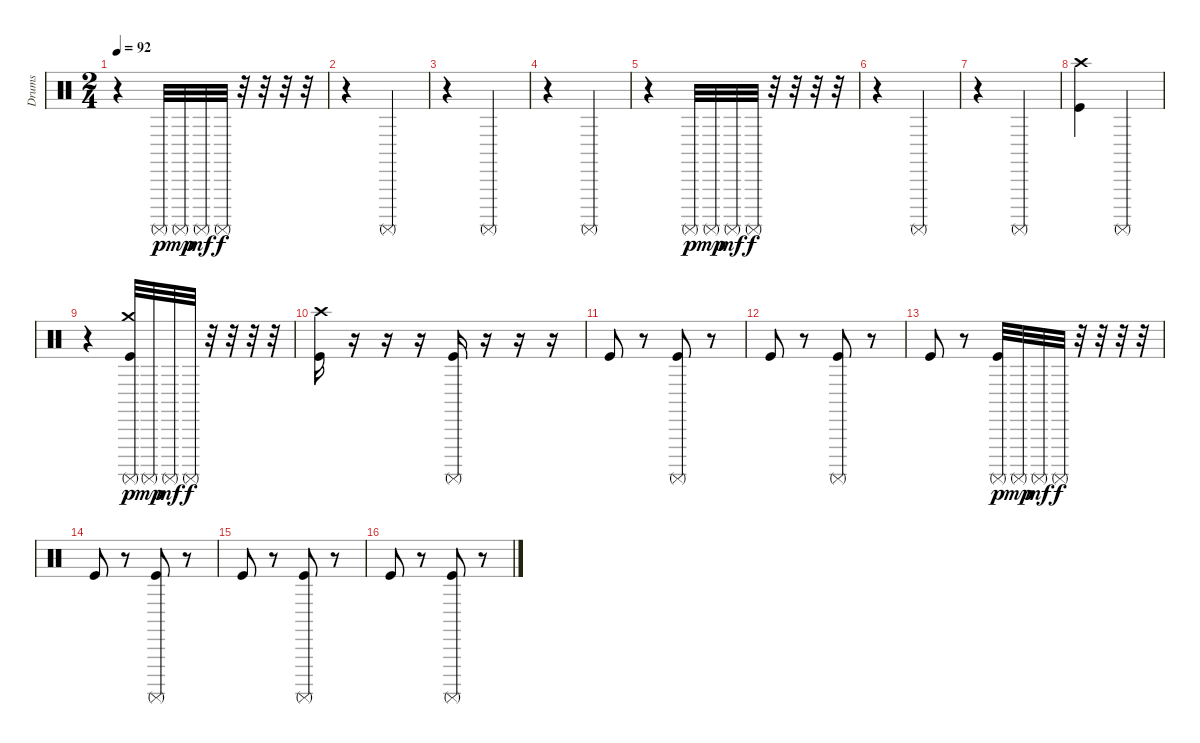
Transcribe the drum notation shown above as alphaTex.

\track ("Drums" "Drums") {instrument percussion}
\staff {score}
\articulation defaults
\ts (2 4)
\tempo 92
\clef neutral
\ks c
r.4{dy f} "Surdo (mute)".32{dy p} "Surdo (mute)".32{dy mp} "Surdo (mute)".32{dy mf} "Surdo (mute)".32{dy f} r.32 r.32 r.32 r.32 |
r.4 "Surdo (mute)".4 |
r.4 "Surdo (mute)".4 |
r.4 "Surdo (mute)".4 |
r.4 "Surdo (mute)".32{dy p} "Surdo (mute)".32{dy mp} "Surdo (mute)".32{dy mf} "Surdo (mute)".32{dy f} r.32 r.32 r.32 r.32 |
r.4 "Surdo (mute)".4 |
r.4 "Surdo (mute)".4 |
("Crash high (hit)" "Kick (hit)").4 "Surdo (mute)".4 |
r.4 ("Crash medium (hit)" "Kick (hit)" "Surdo (mute)").32{dy p} "Surdo (mute)".32{dy mp} "Surdo (mute)".32{dy mf} "Surdo (mute)".32{dy f} r.32 r.32 r.32 r.32 |
("Crash high (hit)" "Kick (hit)").16 r.16 r.16 r.16 ("Surdo (mute)" "Kick (hit)").16 r.16 r.16 r.16 |
"Kick (hit)".8 r.8 ("Surdo (mute)" "Kick (hit)").8 r.8 |
"Kick (hit)".8 r.8 ("Surdo (mute)" "Kick (hit)").8 r.8 |
"Kick (hit)".8 r.8 ("Surdo (mute)" "Kick (hit)").32{dy p} "Surdo (mute)".32{dy mp} "Surdo (mute)".32{dy mf} "Surdo (mute)".32{dy f} r.32 r.32 r.32 r.32 |
"Kick (hit)".8 r.8 ("Surdo (mute)" "Kick (hit)").8 r.8 |
"Kick (hit)".8 r.8 ("Surdo (mute)" "Kick (hit)").8 r.8 |
"Kick (hit)".8 r.8 ("Surdo (mute)" "Kick (hit)").8 r.8
